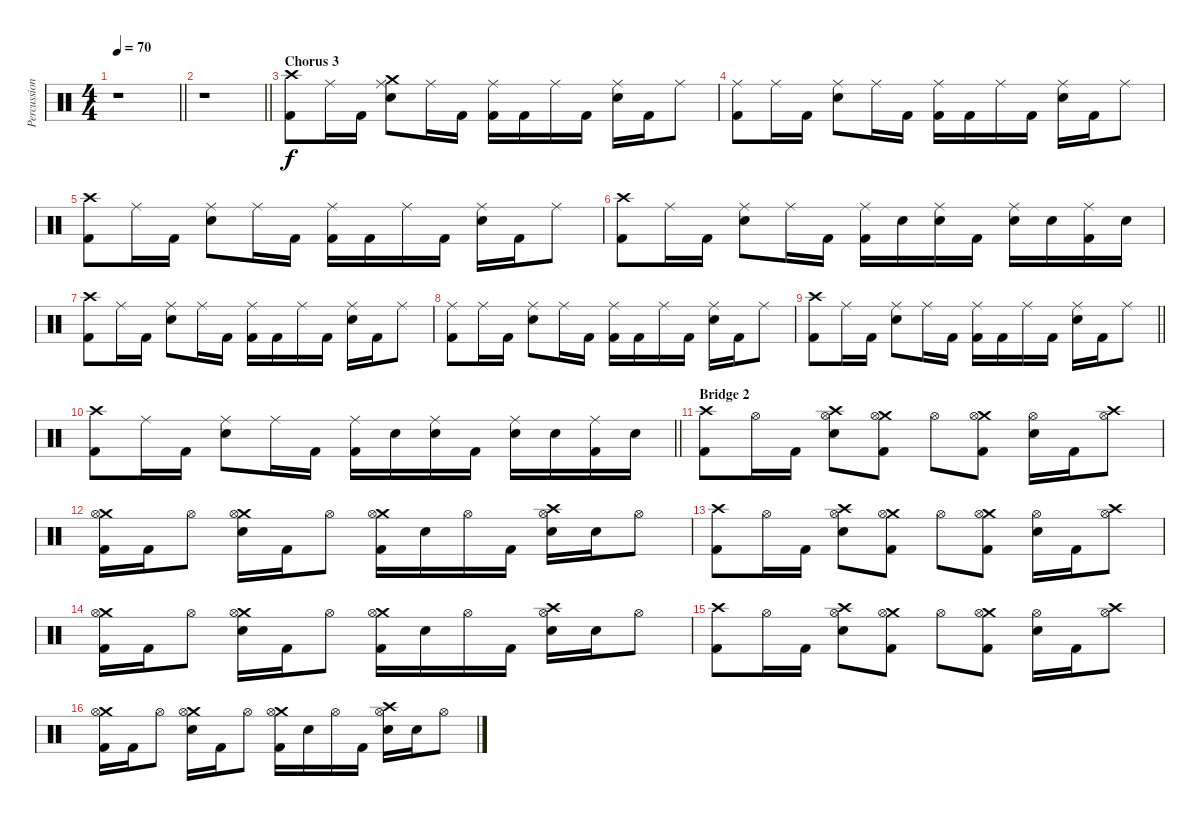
\track ("Percussion" "Percussion") {instrument percussion}
\staff {score}
\articulation defaults
\ts (4 4)
\tempo 70
\clef neutral
\barLineRight lightlight
\ks c
r.1{dy f} |
\barLineRight lightlight
r.1 |
\section ("" "Chorus 3")
("Crash high (hit)" "Kick (hit) 2").8 "Ride (middle)".16 "Kick (hit) 2".16 ("Crash medium (hit)" "Ride (middle)" "Snare (hit) 2").8 "Ride (middle)".16 "Kick (hit) 2".16 ("Ride (middle)" "Kick (hit) 2").16 "Kick (hit) 2".16 "Ride (middle)".16 "Kick (hit) 2".16 ("Ride (middle)" "Snare (hit) 2").16 "Kick (hit) 2".16 "Ride (middle)".8 |
("Ride (middle)" "Kick (hit) 2").8 "Ride (middle)".16 "Kick (hit) 2".16 ("Ride (middle)" "Snare (hit) 2").8 "Ride (middle)".16 "Kick (hit) 2".16 ("Ride (middle)" "Kick (hit) 2").16 "Kick (hit) 2".16 "Ride (middle)".16 "Kick (hit) 2".16 ("Ride (middle)" "Snare (hit) 2").16 "Kick (hit) 2".16 "Ride (middle)".8 |
("Crash high (hit)" "Kick (hit) 2").8 "Ride (middle)".16 "Kick (hit) 2".16 ("Ride (middle)" "Snare (hit) 2").8 "Ride (middle)".16 "Kick (hit) 2".16 ("Ride (middle)" "Kick (hit) 2").16 "Kick (hit) 2".16 "Ride (middle)".16 "Kick (hit) 2".16 ("Ride (middle)" "Snare (hit) 2").16 "Kick (hit) 2".16 "Ride (middle)".8 |
("Crash high (hit)" "Kick (hit) 2").8 "Ride (middle)".16 "Kick (hit) 2".16 ("Ride (middle)" "Snare (hit) 2").8 "Ride (middle)".16 "Kick (hit) 2".16 ("Ride (middle)" "Kick (hit) 2").16 "Snare (hit) 2".16 ("Ride (middle)" "Snare (hit) 2").16 "Kick (hit) 2".16 ("Ride (middle)" "Snare (hit) 2").16 "Snare (hit) 2".16 ("Ride (middle)" "Kick (hit) 2").16 "Snare (hit) 2".16 |
("Crash high (hit)" "Kick (hit) 2").8 "Ride (middle)".16 "Kick (hit) 2".16 ("Ride (middle)" "Snare (hit) 2").8 "Ride (middle)".16 "Kick (hit) 2".16 ("Ride (middle)" "Kick (hit) 2").16 "Kick (hit) 2".16 "Ride (middle)".16 "Kick (hit) 2".16 ("Ride (middle)" "Snare (hit) 2").16 "Kick (hit) 2".16 "Ride (middle)".8 |
("Ride (middle)" "Kick (hit) 2").8 "Ride (middle)".16 "Kick (hit) 2".16 ("Ride (middle)" "Snare (hit) 2").8 "Ride (middle)".16 "Kick (hit) 2".16 ("Ride (middle)" "Kick (hit) 2").16 "Kick (hit) 2".16 "Ride (middle)".16 "Kick (hit) 2".16 ("Ride (middle)" "Snare (hit) 2").16 "Kick (hit) 2".16 "Ride (middle)".8 |
\barLineRight lightlight
("Crash high (hit)" "Kick (hit) 2").8 "Ride (middle)".16 "Kick (hit) 2".16 ("Ride (middle)" "Snare (hit) 2").8 "Ride (middle)".16 "Kick (hit) 2".16 ("Ride (middle)" "Kick (hit) 2").16 "Kick (hit) 2".16 "Ride (middle)".16 "Kick (hit) 2".16 ("Ride (middle)" "Snare (hit) 2").16 "Kick (hit) 2".16 "Ride (middle)".8 |
\barLineRight lightlight
("Crash high (hit)" "Kick (hit) 2").8 "Ride (middle)".16 "Kick (hit) 2".16 ("Ride (middle)" "Snare (hit) 2").8 "Ride (middle)".16 "Kick (hit) 2".16 ("Ride (middle)" "Kick (hit) 2").16 "Snare (hit) 2".16 ("Ride (middle)" "Snare (hit) 2").16 "Kick (hit) 2".16 ("Ride (middle)" "Snare (hit) 2").16 "Snare (hit) 2".16 ("Ride (middle)" "Kick (hit) 2").16 "Snare (hit) 2".16 |
\section ("" "Bridge 2")
("Crash high (hit)" "Kick (hit) 2").8 "Hi-Hat (open)".16 "Kick (hit) 2".16 ("Crash high (hit)" "Hi-Hat (open)" "Snare (hit) 2").8 ("Crash medium (hit)" "Hi-Hat (open)" "Kick (hit) 2").8 "Hi-Hat (open)".8 ("Crash medium (hit)" "Hi-Hat (open)" "Kick (hit) 2").8 ("Hi-Hat (open)" "Snare (hit) 2").16 "Kick (hit) 2".16 ("Crash high (hit)" "Hi-Hat (open)").8 |
("Crash medium (hit)" "Hi-Hat (open)" "Kick (hit) 2").16 "Kick (hit) 2".16 "Hi-Hat (open)".8 ("Crash medium (hit)" "Hi-Hat (open)" "Snare (hit) 2").16 "Kick (hit) 2".16 "Hi-Hat (open)".8 ("Crash medium (hit)" "Hi-Hat (open)" "Kick (hit) 2").16 "Snare (hit) 2".16 "Hi-Hat (open)".16 "Kick (hit) 2".16 ("Crash high (hit)" "Hi-Hat (open)" "Snare (hit) 2").16 "Snare (hit) 2".16 "Hi-Hat (open)".8 |
("Crash high (hit)" "Kick (hit) 2").8 "Hi-Hat (open)".16 "Kick (hit) 2".16 ("Crash high (hit)" "Hi-Hat (open)" "Snare (hit) 2").8 ("Crash medium (hit)" "Hi-Hat (open)" "Kick (hit) 2").8 "Hi-Hat (open)".8 ("Crash medium (hit)" "Hi-Hat (open)" "Kick (hit) 2").8 ("Hi-Hat (open)" "Snare (hit) 2").16 "Kick (hit) 2".16 ("Crash high (hit)" "Hi-Hat (open)").8 |
("Crash medium (hit)" "Hi-Hat (open)" "Kick (hit) 2").16 "Kick (hit) 2".16 "Hi-Hat (open)".8 ("Crash medium (hit)" "Hi-Hat (open)" "Snare (hit) 2").16 "Kick (hit) 2".16 "Hi-Hat (open)".8 ("Crash medium (hit)" "Hi-Hat (open)" "Kick (hit) 2").16 "Snare (hit) 2".16 "Hi-Hat (open)".16 "Kick (hit) 2".16 ("Crash high (hit)" "Hi-Hat (open)" "Snare (hit) 2").16 "Snare (hit) 2".16 "Hi-Hat (open)".8 |
("Crash high (hit)" "Kick (hit) 2").8 "Hi-Hat (open)".16 "Kick (hit) 2".16 ("Crash high (hit)" "Hi-Hat (open)" "Snare (hit) 2").8 ("Crash medium (hit)" "Hi-Hat (open)" "Kick (hit) 2").8 "Hi-Hat (open)".8 ("Crash medium (hit)" "Hi-Hat (open)" "Kick (hit) 2").8 ("Hi-Hat (open)" "Snare (hit) 2").16 "Kick (hit) 2".16 ("Crash high (hit)" "Hi-Hat (open)").8 |
("Crash medium (hit)" "Hi-Hat (open)" "Kick (hit) 2").16 "Kick (hit) 2".16 "Hi-Hat (open)".8 ("Crash medium (hit)" "Hi-Hat (open)" "Snare (hit) 2").16 "Kick (hit) 2".16 "Hi-Hat (open)".8 ("Crash medium (hit)" "Hi-Hat (open)" "Kick (hit) 2").16 "Snare (hit) 2".16 "Hi-Hat (open)".16 "Kick (hit) 2".16 ("Crash high (hit)" "Hi-Hat (open)" "Snare (hit) 2").16 "Snare (hit) 2".16 "Hi-Hat (open)".8
